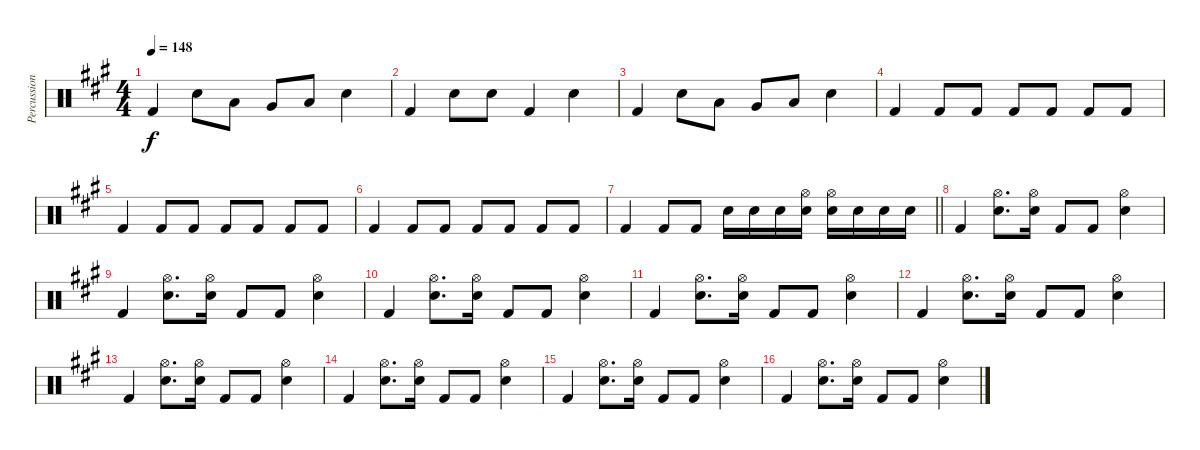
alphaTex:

\track ("Percussion" "Percussion") {instrument percussion}
\staff {score}
\articulation defaults
\ts (4 4)
\tempo 148
\clef neutral
\ks a "Kick (hit) 2".4{dy f} "Electric Snare (hit)".8 "Low Tom (hit)".8 "Very Low Tom (hit)".8 "Low Floor Tom (hit)".8 "Electric Snare (hit)".4
|
"Kick (hit) 2".4 "Electric Snare (hit)".8 "Electric Snare (hit)".8 "Kick (hit) 2".4 "Electric Snare (hit)".4 |
"Kick (hit) 2".4 "Electric Snare (hit)".8 "Low Tom (hit)".8 "Very Low Tom (hit)".8 "Low Floor Tom (hit)".8 "Electric Snare (hit)".4 |
"Kick (hit) 2".4 "Kick (hit) 2".8 "Kick (hit) 2".8 "Kick (hit) 2".8 "Kick (hit) 2".8 "Kick (hit) 2".8 "Kick (hit) 2".8 |
"Kick (hit) 2".4 "Kick (hit) 2".8 "Kick (hit) 2".8 "Kick (hit) 2".8 "Kick (hit) 2".8 "Kick (hit) 2".8 "Kick (hit) 2".8 |
"Kick (hit) 2".4 "Kick (hit) 2".8 "Kick (hit) 2".8 "Kick (hit) 2".8 "Kick (hit) 2".8 "Kick (hit) 2".8 "Kick (hit) 2".8 |
\barLineRight lightlight "Kick (hit) 2".4 "Kick (hit) 2".8 "Kick (hit) 2".8 "Electric Snare (hit)".16 "Electric Snare (hit)".16 "Electric Snare (hit)".16
("Hi-Hat (open)" "Electric Snare (hit)").16 ("Hi-Hat (open)" "Electric Snare (hit)").16 "Electric Snare (hit)".16 "Electric Snare (hit)".16 "Electric Snare (hit)".16 |
"Kick (hit) 2".4 ("Hi-Hat (open)" "Electric Snare (hit)").8{d} ("Hi-Hat (open)" "Electric Snare (hit)").16 "Kick (hit) 2".8 "Kick (hit) 2".8 ("Hi-Hat (open)" "Electric Snare (hit)").4 |
"Kick (hit) 2".4 ("Hi-Hat (open)" "Electric Snare (hit)").8{d} ("Hi-Hat (open)" "Electric Snare (hit)").16 "Kick (hit) 2".8 "Kick (hit) 2".8 ("Hi-Hat (open)" "Electric Snare (hit)").4 |
"Kick (hit) 2".4 ("Hi-Hat (open)" "Electric Snare (hit)").8{d} ("Hi-Hat (open)" "Electric Snare (hit)").16 "Kick (hit) 2".8 "Kick (hit) 2".8 ("Hi-Hat (open)" "Electric Snare (hit)").4 |
"Kick (hit) 2".4 ("Hi-Hat (open)" "Electric Snare (hit)").8{d} ("Hi-Hat (open)" "Electric Snare (hit)").16 "Kick (hit) 2".8 "Kick (hit) 2".8 ("Hi-Hat (open)" "Electric Snare (hit)").4 |
"Kick (hit) 2".4 ("Hi-Hat (open)" "Electric Snare (hit)").8{d} ("Hi-Hat (open)" "Electric Snare (hit)").16 "Kick (hit) 2".8 "Kick (hit) 2".8 ("Hi-Hat (open)" "Electric Snare (hit)").4 |
"Kick (hit) 2".4 ("Hi-Hat (open)" "Electric Snare (hit)").8{d} ("Hi-Hat (open)" "Electric Snare (hit)").16 "Kick (hit) 2".8 "Kick (hit) 2".8 ("Hi-Hat (open)" "Electric Snare (hit)").4 |
"Kick (hit) 2".4 ("Hi-Hat (open)" "Electric Snare (hit)").8{d} ("Hi-Hat (open)" "Electric Snare (hit)").16 "Kick (hit) 2".8 "Kick (hit) 2".8 ("Hi-Hat (open)" "Electric Snare (hit)").4 |
"Kick (hit) 2".4 ("Hi-Hat (open)" "Electric Snare (hit)").8{d} ("Hi-Hat (open)" "Electric Snare (hit)").16 "Kick (hit) 2".8 "Kick (hit) 2".8 ("Hi-Hat (open)" "Electric Snare (hit)").4 |
"Kick (hit) 2".4 ("Hi-Hat (open)" "Electric Snare (hit)").8{d} ("Hi-Hat (open)" "Electric Snare (hit)").16 "Kick (hit) 2".8 "Kick (hit) 2".8 ("Hi-Hat (open)" "Electric Snare (hit)").4
